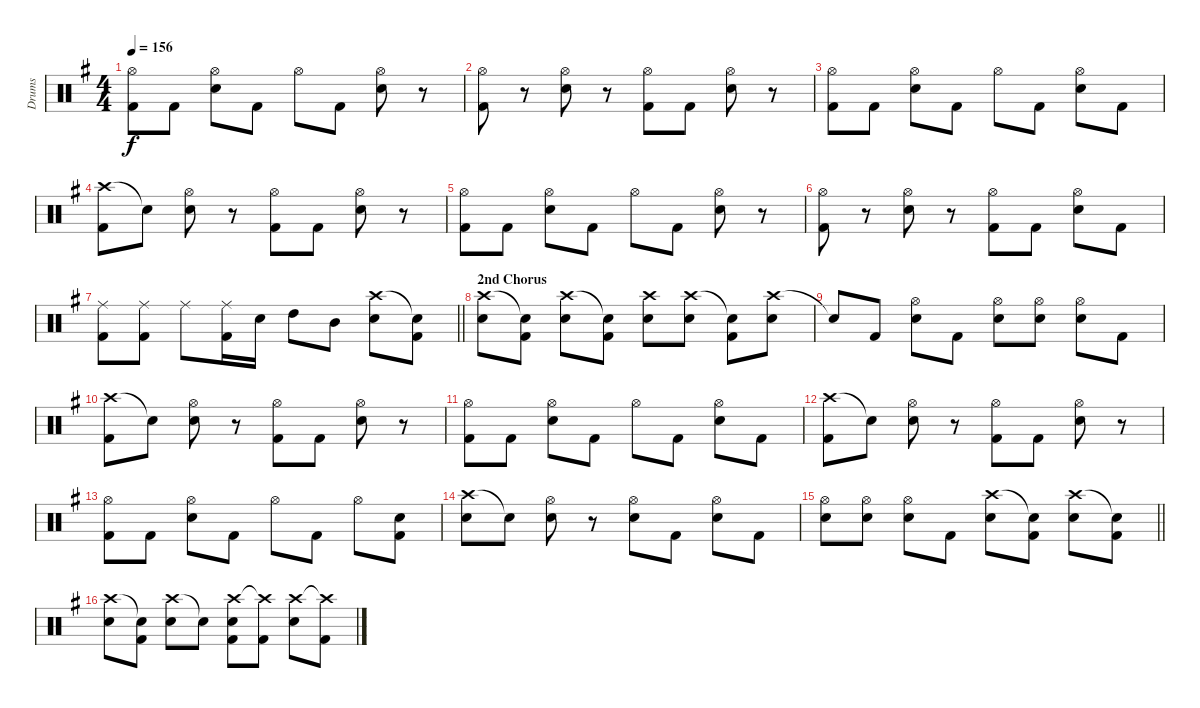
\track ("Drums" "Drums") {instrument percussion}
\staff {score}
\articulation defaults
\ts (4 4)
\tempo 156
\clef neutral
\ks g
("Hi-Hat (open)" "Kick (hit) 2").8{dy f} "Kick (hit) 2".8 ("Hi-Hat (open)" "Snare (hit) 2").8 "Kick (hit) 2".8 "Hi-Hat (open)".8 "Kick (hit) 2".8 ("Hi-Hat (open)" "Snare (hit) 2").8 r.8 |
("Hi-Hat (open)" "Kick (hit) 2").8 r.8 ("Hi-Hat (open)" "Snare (hit) 2").8 r.8 ("Hi-Hat (open)" "Kick (hit) 2").8 "Kick (hit) 2".8 ("Hi-Hat (open)" "Snare (hit) 2").8 r.8 |
("Hi-Hat (open)" "Kick (hit) 2").8 "Kick (hit) 2".8 ("Hi-Hat (open)" "Snare (hit) 2").8 "Kick (hit) 2".8 "Hi-Hat (open)".8 "Kick (hit) 2".8 ("Hi-Hat (open)" "Snare (hit) 2").8 "Kick (hit) 2".8 |
("Crash high (hit)" "Kick (hit) 2").8 "Snare (hit)"{t}.8 ("Hi-Hat (open)" "Snare (hit) 2").8 r.8 ("Hi-Hat (open)" "Kick (hit) 2").8 "Kick (hit) 2".8 ("Hi-Hat (open)" "Snare (hit) 2").8 r.8 |
("Hi-Hat (open)" "Kick (hit) 2").8 "Kick (hit) 2".8 ("Hi-Hat (open)" "Snare (hit) 2").8 "Kick (hit) 2".8 "Hi-Hat (open)".8 "Kick (hit) 2".8 ("Hi-Hat (open)" "Snare (hit) 2").8 r.8 |
("Hi-Hat (open)" "Kick (hit) 2").8 r.8 ("Hi-Hat (open)" "Snare (hit) 2").8 r.8 ("Hi-Hat (open)" "Kick (hit) 2").8 "Kick (hit) 2".8 ("Hi-Hat (open)" "Snare (hit) 2").8 "Kick (hit) 2".8 |
\barLineRight lightlight
("Ride (middle)" "Kick (hit) 2").8 ("Ride (middle)" "Kick (hit) 2").8 "Ride (middle)".8 ("Ride (middle)" "Kick (hit) 2").16 "Snare (hit) 2".16 "High Tom (hit)".8 "Mid Tom (hit)".8 ("Crash high (hit)" "Snare (hit) 2").8 ("Snare (hit)"{t} "Kick (hit) 2").8 |
\section ("" "2nd Chorus")
("Crash high (hit)" "Snare (hit) 2").8 ("Snare (hit)"{t} "Kick (hit) 2").8 ("Crash high (hit)" "Snare (hit) 2").8 ("Snare (hit)"{t} "Kick (hit) 2").8 ("Crash high (hit)" "Snare (hit) 2").8 ("Crash high (hit)" "Snare (hit) 2").8 ("Snare (hit)"{t} "Kick (hit) 2").8 ("Crash high (hit)" "Snare (hit) 2").8 |
"Snare (hit)"{t}.8 "Kick (hit) 2".8 ("Hi-Hat (open)" "Snare (hit) 2").8 "Kick (hit) 2".8 ("Hi-Hat (open)" "Snare (hit) 2").8 ("Hi-Hat (open)" "Snare (hit) 2").8 ("Hi-Hat (open)" "Snare (hit) 2").8 "Kick (hit) 2".8 |
("Crash high (hit)" "Kick (hit) 2").8 "Snare (hit)"{t}.8 ("Hi-Hat (open)" "Snare (hit) 2").8 r.8 ("Hi-Hat (open)" "Kick (hit) 2").8 "Kick (hit) 2".8 ("Hi-Hat (open)" "Snare (hit) 2").8 r.8 |
("Hi-Hat (open)" "Kick (hit) 2").8 "Kick (hit) 2".8 ("Hi-Hat (open)" "Snare (hit) 2").8 "Kick (hit) 2".8 "Hi-Hat (open)".8 "Kick (hit) 2".8 ("Hi-Hat (open)" "Snare (hit) 2").8 "Kick (hit) 2".8 |
("Crash high (hit)" "Kick (hit) 2").8 "Snare (hit)"{t}.8 ("Hi-Hat (open)" "Snare (hit) 2").8 r.8 ("Hi-Hat (open)" "Kick (hit) 2").8 "Kick (hit) 2".8 ("Hi-Hat (open)" "Snare (hit) 2").8 r.8 |
("Hi-Hat (open)" "Kick (hit) 2").8 "Kick (hit) 2".8 ("Hi-Hat (open)" "Snare (hit) 2").8 "Kick (hit) 2".8 "Hi-Hat (open)".8 "Kick (hit) 2".8 "Hi-Hat (open)".8 ("Snare (hit) 2" "Kick (hit) 2").8 |
("Crash high (hit)" "Snare (hit) 2").8 "Snare (hit)"{t}.8 ("Hi-Hat (open)" "Snare (hit) 2").8 r.8 ("Hi-Hat (open)" "Snare (hit) 2").8 "Kick (hit) 2".8 ("Hi-Hat (open)" "Snare (hit) 2").8 "Kick (hit) 2".8 |
\barLineRight lightlight
("Hi-Hat (open)" "Snare (hit) 2").8 ("Hi-Hat (open)" "Snare (hit) 2").8 ("Hi-Hat (open)" "Snare (hit) 2").8 "Kick (hit) 2".8 ("Crash high (hit)" "Snare (hit) 2").8 ("Snare (hit)"{t} "Kick (hit) 2").8 ("Crash high (hit)" "Snare (hit) 2").8 ("Snare (hit)"{t} "Kick (hit) 2").8 |
("Crash high (hit)" "Snare (hit) 2").8 ("Snare (hit)"{t} "Kick (hit) 2").8 ("Crash high (hit)" "Snare (hit) 2").8 "Snare (hit)"{t}.8 ("Crash high (hit)" "Snare (hit) 2" "Kick (hit) 2").8 ("Crash high (hit)"{t} "Kick (hit) 2").8 ("Crash high (hit)" "Snare (hit) 2").8 ("Crash high (hit)"{t} "Kick (hit) 2").8
